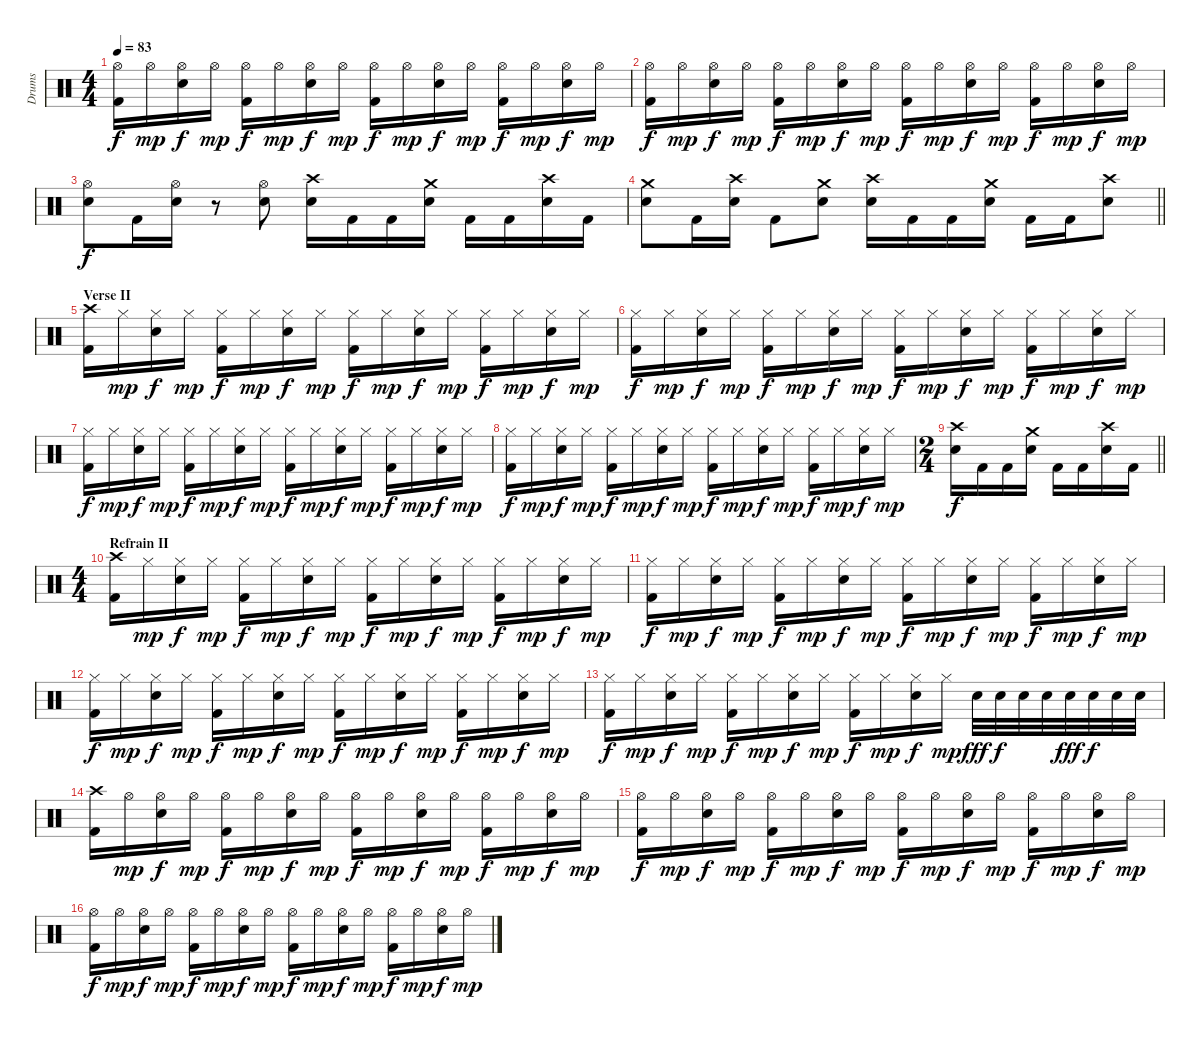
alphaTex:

\track ("Drums" "Drums") {instrument percussion}
\staff {score}
\articulation defaults
\ts (4 4)
\tempo 83
\clef neutral
\ks c
("Hi-Hat (open)" "Kick (hit) 2").16{dy f} "Hi-Hat (open)".16{dy mp} ("Hi-Hat (open)" "Snare (hit) 2").16{dy f} "Hi-Hat (open)".16{dy mp} ("Hi-Hat (open)" "Kick (hit) 2").16{dy f} "Hi-Hat (open)".16{dy mp} ("Hi-Hat (open)" "Snare (hit) 2").16{dy f} "Hi-Hat (open)".16{dy mp} ("Hi-Hat (open)" "Kick (hit) 2").16{dy f} "Hi-Hat (open)".16{dy mp} ("Hi-Hat (open)" "Snare (hit) 2").16{dy f} "Hi-Hat (open)".16{dy mp} ("Hi-Hat (open)" "Kick (hit) 2").16{dy f} "Hi-Hat (open)".16{dy mp} ("Hi-Hat (open)" "Snare (hit) 2").16{dy f} "Hi-Hat (open)".16{dy mp} |
("Hi-Hat (open)" "Kick (hit) 2").16{dy f} "Hi-Hat (open)".16{dy mp} ("Hi-Hat (open)" "Snare (hit) 2").16{dy f} "Hi-Hat (open)".16{dy mp} ("Hi-Hat (open)" "Kick (hit) 2").16{dy f} "Hi-Hat (open)".16{dy mp} ("Hi-Hat (open)" "Snare (hit) 2").16{dy f} "Hi-Hat (open)".16{dy mp} ("Hi-Hat (open)" "Kick (hit) 2").16{dy f} "Hi-Hat (open)".16{dy mp} ("Hi-Hat (open)" "Snare (hit) 2").16{dy f} "Hi-Hat (open)".16{dy mp} ("Hi-Hat (open)" "Kick (hit) 2").16{dy f} "Hi-Hat (open)".16{dy mp} ("Hi-Hat (open)" "Snare (hit) 2").16{dy f} "Hi-Hat (open)".16{dy mp} |
("Hi-Hat (open)" "Snare (hit) 2").8{dy f} "Kick (hit) 2".16 ("Hi-Hat (open)" "Snare (hit) 2").16 r.8 ("Hi-Hat (open)" "Snare (hit) 2").8 ("Crash high (hit)" "Snare (hit) 2").16 "Kick (hit) 2".16 "Kick (hit) 2".16 ("Crash medium (hit)" "Snare (hit) 2").16 "Kick (hit) 2".16 "Kick (hit) 2".16 ("Crash high (hit)" "Snare (hit) 2").16 "Kick (hit) 2".16 |
\barLineRight lightlight
("Crash medium (hit)" "Snare (hit) 2").8 "Kick (hit) 2".16 ("Crash high (hit)" "Snare (hit) 2").16 "Kick (hit) 2".8 ("Crash medium (hit)" "Snare (hit) 2").8 ("Crash high (hit)" "Snare (hit) 2").16 "Kick (hit) 2".16 "Kick (hit) 2".16 ("Crash medium (hit)" "Snare (hit) 2").16 "Kick (hit) 2".16 "Kick (hit) 2".16 ("Crash high (hit)" "Snare (hit) 2").8 |
\section ("" "Verse II")
("Crash high (hit)" "Kick (hit) 2").16 "Hi-Hat (closed)".16{dy mp} ("Hi-Hat (closed)" "Snare (hit) 2").16{dy f} "Hi-Hat (closed)".16{dy mp} ("Hi-Hat (closed)" "Kick (hit) 2").16{dy f} "Hi-Hat (closed)".16{dy mp} ("Hi-Hat (closed)" "Snare (hit) 2").16{dy f} "Hi-Hat (closed)".16{dy mp} ("Hi-Hat (closed)" "Kick (hit) 2").16{dy f} "Hi-Hat (closed)".16{dy mp} ("Hi-Hat (closed)" "Snare (hit) 2").16{dy f} "Hi-Hat (closed)".16{dy mp} ("Hi-Hat (closed)" "Kick (hit) 2").16{dy f} "Hi-Hat (closed)".16{dy mp} ("Hi-Hat (closed)" "Snare (hit) 2").16{dy f} "Hi-Hat (closed)".16{dy mp} |
("Hi-Hat (closed)" "Kick (hit) 2").16{dy f} "Hi-Hat (closed)".16{dy mp} ("Hi-Hat (closed)" "Snare (hit) 2").16{dy f} "Hi-Hat (closed)".16{dy mp} ("Hi-Hat (closed)" "Kick (hit) 2").16{dy f} "Hi-Hat (closed)".16{dy mp} ("Hi-Hat (closed)" "Snare (hit) 2").16{dy f} "Hi-Hat (closed)".16{dy mp} ("Hi-Hat (closed)" "Kick (hit) 2").16{dy f} "Hi-Hat (closed)".16{dy mp} ("Hi-Hat (closed)" "Snare (hit) 2").16{dy f} "Hi-Hat (closed)".16{dy mp} ("Hi-Hat (closed)" "Kick (hit) 2").16{dy f} "Hi-Hat (closed)".16{dy mp} ("Hi-Hat (closed)" "Snare (hit) 2").16{dy f} "Hi-Hat (closed)".16{dy mp} |
("Hi-Hat (closed)" "Kick (hit) 2").16{dy f} "Hi-Hat (closed)".16{dy mp} ("Hi-Hat (closed)" "Snare (hit) 2").16{dy f} "Hi-Hat (closed)".16{dy mp} ("Hi-Hat (closed)" "Kick (hit) 2").16{dy f} "Hi-Hat (closed)".16{dy mp} ("Hi-Hat (closed)" "Snare (hit) 2").16{dy f} "Hi-Hat (closed)".16{dy mp} ("Hi-Hat (closed)" "Kick (hit) 2").16{dy f} "Hi-Hat (closed)".16{dy mp} ("Hi-Hat (closed)" "Snare (hit) 2").16{dy f} "Hi-Hat (closed)".16{dy mp} ("Hi-Hat (closed)" "Kick (hit) 2").16{dy f} "Hi-Hat (closed)".16{dy mp} ("Hi-Hat (closed)" "Snare (hit) 2").16{dy f} "Hi-Hat (closed)".16{dy mp} |
("Hi-Hat (closed)" "Kick (hit) 2").16{dy f} "Hi-Hat (closed)".16{dy mp} ("Hi-Hat (closed)" "Snare (hit) 2").16{dy f} "Hi-Hat (closed)".16{dy mp} ("Hi-Hat (closed)" "Kick (hit) 2").16{dy f} "Hi-Hat (closed)".16{dy mp} ("Hi-Hat (closed)" "Snare (hit) 2").16{dy f} "Hi-Hat (closed)".16{dy mp} ("Hi-Hat (closed)" "Kick (hit) 2").16{dy f} "Hi-Hat (closed)".16{dy mp} ("Hi-Hat (closed)" "Snare (hit) 2").16{dy f} "Hi-Hat (closed)".16{dy mp} ("Hi-Hat (closed)" "Kick (hit) 2").16{dy f} "Hi-Hat (closed)".16{dy mp} ("Hi-Hat (closed)" "Snare (hit) 2").16{dy f} "Hi-Hat (closed)".16{dy mp} |
\ts (2 4)
\barLineRight lightlight
("Crash high (hit)" "Snare (hit) 2").16{dy f} "Kick (hit) 2".16 "Kick (hit) 2".16 ("Crash medium (hit)" "Snare (hit) 2").16 "Kick (hit) 2".16 "Kick (hit) 2".16 ("Crash high (hit)" "Snare (hit) 2").16 "Kick (hit) 2".16 |
\ts (4 4)
\section ("" "Refrain II")
("Crash high (hit)" "Kick (hit) 2").16 "Hi-Hat (closed)".16{dy mp} ("Hi-Hat (closed)" "Snare (hit) 2").16{dy f} "Hi-Hat (closed)".16{dy mp} ("Hi-Hat (closed)" "Kick (hit) 2").16{dy f} "Hi-Hat (closed)".16{dy mp} ("Hi-Hat (closed)" "Snare (hit) 2").16{dy f} "Hi-Hat (closed)".16{dy mp} ("Hi-Hat (closed)" "Kick (hit) 2").16{dy f} "Hi-Hat (closed)".16{dy mp} ("Hi-Hat (closed)" "Snare (hit) 2").16{dy f} "Hi-Hat (closed)".16{dy mp} ("Hi-Hat (closed)" "Kick (hit) 2").16{dy f} "Hi-Hat (closed)".16{dy mp} ("Hi-Hat (closed)" "Snare (hit) 2").16{dy f} "Hi-Hat (closed)".16{dy mp} |
("Hi-Hat (closed)" "Kick (hit) 2").16{dy f} "Hi-Hat (closed)".16{dy mp} ("Hi-Hat (closed)" "Snare (hit) 2").16{dy f} "Hi-Hat (closed)".16{dy mp} ("Hi-Hat (closed)" "Kick (hit) 2").16{dy f} "Hi-Hat (closed)".16{dy mp} ("Hi-Hat (closed)" "Snare (hit) 2").16{dy f} "Hi-Hat (closed)".16{dy mp} ("Hi-Hat (closed)" "Kick (hit) 2").16{dy f} "Hi-Hat (closed)".16{dy mp} ("Hi-Hat (closed)" "Snare (hit) 2").16{dy f} "Hi-Hat (closed)".16{dy mp} ("Hi-Hat (closed)" "Kick (hit) 2").16{dy f} "Hi-Hat (closed)".16{dy mp} ("Hi-Hat (closed)" "Snare (hit) 2").16{dy f} "Hi-Hat (closed)".16{dy mp} |
("Hi-Hat (closed)" "Kick (hit) 2").16{dy f} "Hi-Hat (closed)".16{dy mp} ("Hi-Hat (closed)" "Snare (hit) 2").16{dy f} "Hi-Hat (closed)".16{dy mp} ("Hi-Hat (closed)" "Kick (hit) 2").16{dy f} "Hi-Hat (closed)".16{dy mp} ("Hi-Hat (closed)" "Snare (hit) 2").16{dy f} "Hi-Hat (closed)".16{dy mp} ("Hi-Hat (closed)" "Kick (hit) 2").16{dy f} "Hi-Hat (closed)".16{dy mp} ("Hi-Hat (closed)" "Snare (hit) 2").16{dy f} "Hi-Hat (closed)".16{dy mp} ("Hi-Hat (closed)" "Kick (hit) 2").16{dy f} "Hi-Hat (closed)".16{dy mp} ("Hi-Hat (closed)" "Snare (hit) 2").16{dy f} "Hi-Hat (closed)".16{dy mp} |
("Hi-Hat (closed)" "Kick (hit) 2").16{dy f} "Hi-Hat (closed)".16{dy mp} ("Hi-Hat (closed)" "Snare (hit) 2").16{dy f} "Hi-Hat (closed)".16{dy mp} ("Hi-Hat (closed)" "Kick (hit) 2").16{dy f} "Hi-Hat (closed)".16{dy mp} ("Hi-Hat (closed)" "Snare (hit) 2").16{dy f} "Hi-Hat (closed)".16{dy mp} ("Hi-Hat (closed)" "Kick (hit) 2").16{dy f} "Hi-Hat (closed)".16{dy mp} ("Hi-Hat (closed)" "Snare (hit) 2").16{dy f} "Hi-Hat (closed)".16{dy mp} "Snare (hit) 2".32{dy fff} "Snare (hit) 2".32{dy f} "Snare (hit) 2".32 "Snare (hit) 2".32 "Snare (hit) 2".32{dy fff} "Snare (hit) 2".32{dy f} "Snare (hit) 2".32 "Snare (hit) 2".32 |
("Crash high (hit)" "Kick (hit) 2").16 "Hi-Hat (open)".16{dy mp} ("Hi-Hat (open)" "Snare (hit) 2").16{dy f} "Hi-Hat (open)".16{dy mp} ("Hi-Hat (open)" "Kick (hit) 2").16{dy f} "Hi-Hat (open)".16{dy mp} ("Hi-Hat (open)" "Snare (hit) 2").16{dy f} "Hi-Hat (open)".16{dy mp} ("Hi-Hat (open)" "Kick (hit) 2").16{dy f} "Hi-Hat (open)".16{dy mp} ("Hi-Hat (open)" "Snare (hit) 2").16{dy f} "Hi-Hat (open)".16{dy mp} ("Hi-Hat (open)" "Kick (hit) 2").16{dy f} "Hi-Hat (open)".16{dy mp} ("Hi-Hat (open)" "Snare (hit) 2").16{dy f} "Hi-Hat (open)".16{dy mp} |
("Hi-Hat (open)" "Kick (hit) 2").16{dy f} "Hi-Hat (open)".16{dy mp} ("Hi-Hat (open)" "Snare (hit) 2").16{dy f} "Hi-Hat (open)".16{dy mp} ("Hi-Hat (open)" "Kick (hit) 2").16{dy f} "Hi-Hat (open)".16{dy mp} ("Hi-Hat (open)" "Snare (hit) 2").16{dy f} "Hi-Hat (open)".16{dy mp} ("Hi-Hat (open)" "Kick (hit) 2").16{dy f} "Hi-Hat (open)".16{dy mp} ("Hi-Hat (open)" "Snare (hit) 2").16{dy f} "Hi-Hat (open)".16{dy mp} ("Hi-Hat (open)" "Kick (hit) 2").16{dy f} "Hi-Hat (open)".16{dy mp} ("Hi-Hat (open)" "Snare (hit) 2").16{dy f} "Hi-Hat (open)".16{dy mp} |
("Hi-Hat (open)" "Kick (hit) 2").16{dy f} "Hi-Hat (open)".16{dy mp} ("Hi-Hat (open)" "Snare (hit) 2").16{dy f} "Hi-Hat (open)".16{dy mp} ("Hi-Hat (open)" "Kick (hit) 2").16{dy f} "Hi-Hat (open)".16{dy mp} ("Hi-Hat (open)" "Snare (hit) 2").16{dy f} "Hi-Hat (open)".16{dy mp} ("Hi-Hat (open)" "Kick (hit) 2").16{dy f} "Hi-Hat (open)".16{dy mp} ("Hi-Hat (open)" "Snare (hit) 2").16{dy f} "Hi-Hat (open)".16{dy mp} ("Hi-Hat (open)" "Kick (hit) 2").16{dy f} "Hi-Hat (open)".16{dy mp} ("Hi-Hat (open)" "Snare (hit) 2").16{dy f} "Hi-Hat (open)".16{dy mp}
